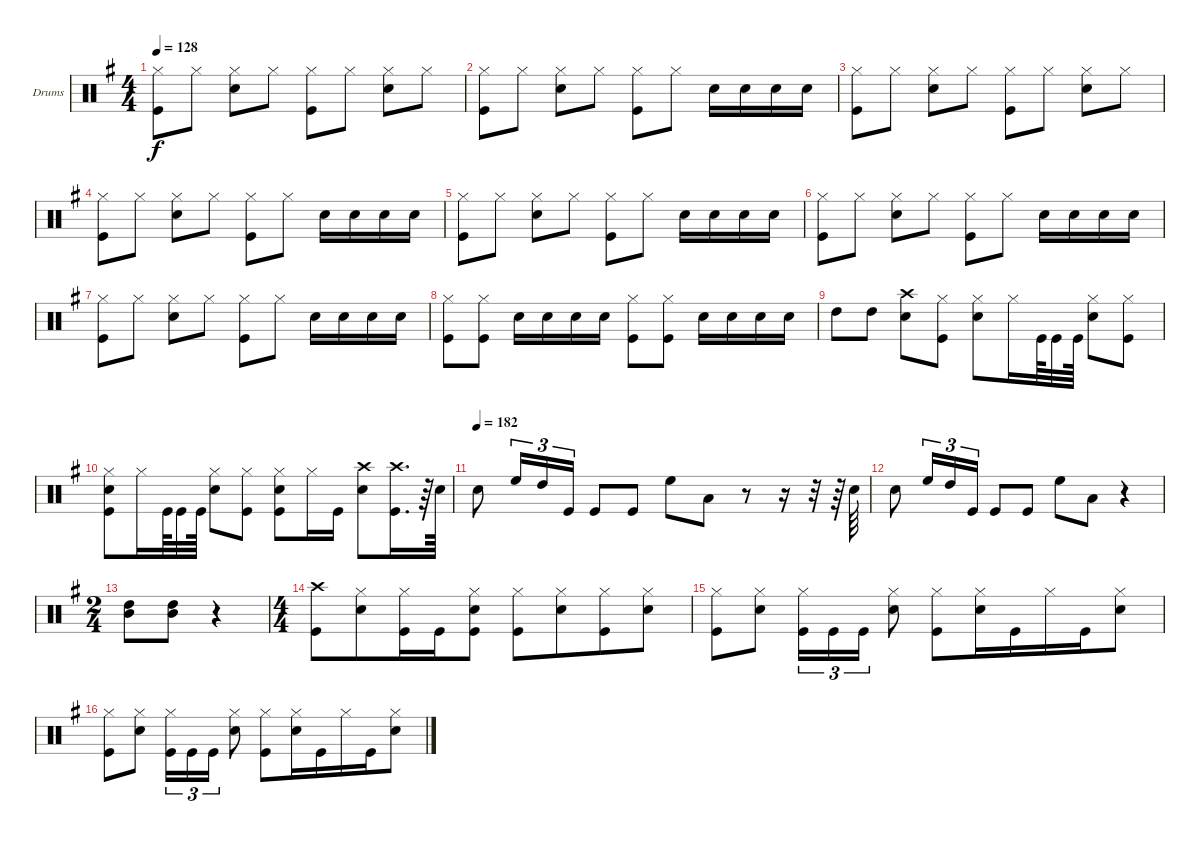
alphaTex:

\bracketExtendMode groupsimilarinstruments
\firstSystemTrackNameOrientation horizontal
\otherSystemsTrackNameOrientation horizontal
\track ("Drumkit" "Drums") {instrument percussion}
\staff {score}
\articulation defaults
\ts (4 4)
\tempo 128
\clef neutral
\scale
1.04288
\ks g
("Hi-Hat (closed)" "Kick (hit)").8{dy f} "Hi-Hat (closed)".8 ("Snare (hit) 2" "Hi-Hat (closed)").8 "Hi-Hat (closed)".8 ("Hi-Hat (closed)" "Kick (hit)").8 "Hi-Hat (closed)".8 ("Snare (hit) 2" "Hi-Hat (closed)").8 "Hi-Hat (closed)".8 |
\scale
0.957125 ("Hi-Hat (closed)" "Kick (hit)").8 "Hi-Hat (closed)".8 ("Snare (hit) 2" "Hi-Hat (closed)").8 "Hi-Hat (closed)".8 ("Hi-Hat (closed)" "Kick (hit)").8 "Hi-Hat (closed)".8 "Snare (hit) 2".16 "Snare (hit) 2".16 "Snare (hit) 2".16 "Snare (hit) 2".16 |
\scale
1.04288 ("Hi-Hat (closed)" "Kick (hit)").8 "Hi-Hat (closed)".8 ("Snare (hit) 2" "Hi-Hat (closed)").8 "Hi-Hat (closed)".8 ("Hi-Hat (closed)" "Kick (hit)").8 "Hi-Hat (closed)".8 ("Snare (hit) 2" "Hi-Hat (closed)").8 "Hi-Hat (closed)".8 |
\scale
0.957125 ("Hi-Hat (closed)" "Kick (hit)").8 "Hi-Hat (closed)".8 ("Snare (hit) 2" "Hi-Hat (closed)").8 "Hi-Hat (closed)".8 ("Hi-Hat (closed)" "Kick (hit)").8 "Hi-Hat (closed)".8 "Snare (hit) 2".16 "Snare (hit) 2".16 "Snare (hit) 2".16 "Snare (hit) 2".16 |
\scale
1.04288 ("Hi-Hat (closed)" "Kick (hit)").8 "Hi-Hat (closed)".8 ("Snare (hit) 2" "Hi-Hat (closed)").8 "Hi-Hat (closed)".8 ("Hi-Hat (closed)" "Kick (hit)").8 "Hi-Hat (closed)".8 "Snare (hit) 2".16 "Snare (hit) 2".16 "Snare (hit) 2".16 "Snare (hit) 2".16 |
\scale
0.957125 ("Hi-Hat (closed)" "Kick (hit)").8 "Hi-Hat (closed)".8 ("Snare (hit) 2" "Hi-Hat (closed)").8 "Hi-Hat (closed)".8 ("Hi-Hat (closed)" "Kick (hit)").8 "Hi-Hat (closed)".8 "Snare (hit) 2".16 "Snare (hit) 2".16 "Snare (hit) 2".16 "Snare (hit) 2".16 |
\scale
1.04288 ("Hi-Hat (closed)" "Kick (hit)").8 "Hi-Hat (closed)".8 ("Snare (hit) 2" "Hi-Hat (closed)").8 "Hi-Hat (closed)".8 ("Hi-Hat (closed)" "Kick (hit)").8 "Hi-Hat (closed)".8 "Snare (hit) 2".16 "Snare (hit) 2".16 "Snare (hit) 2".16 "Snare (hit) 2".16 |
\scale
0.957125 ("Kick (hit)" "Hi-Hat (closed)").8 ("Kick (hit)" "Hi-Hat (closed)").8 "Snare (hit) 2".16 "Snare (hit) 2".16 "Snare (hit) 2".16 "Snare (hit) 2".16 ("Kick (hit)" "Hi-Hat (closed)").8 ("Kick (hit)" "Hi-Hat (closed)").8 "Snare (hit) 2".16 "Snare (hit) 2".16 "Snare (hit) 2".16 "Snare (hit) 2".16 |
\scale
1.04288 "High Tom (hit)".8 "High Tom (hit)".8 ("Crash high (hit)" "Snare (hit) 2").8 ("Kick (hit)" "Hi-Hat (closed)").8 ("Snare (hit) 2" "Hi-Hat (closed)").8 "Hi-Hat (closed)".16 "Kick (hit)".64 "Kick (hit)".32 "Kick (hit)".64 ("Snare (hit) 2" "Hi-Hat (closed)").8 ("Kick (hit)" "Hi-Hat (closed)").8 |
\scale
0.957125 ("Hi-Hat (closed)" "Snare (hit) 2" "Kick (hit)").8 "Hi-Hat (closed)".16 "Kick (hit)".64 "Kick (hit)".32 "Kick (hit)".64 ("Snare (hit) 2" "Hi-Hat (closed)").8 ("Hi-Hat (closed)" "Kick (hit)").8 ("Snare (hit) 2" "Hi-Hat (closed)" "Kick (hit)").8 "Hi-Hat (closed)".16 "Kick (hit)".16 ("Crash high (hit)" "Snare (hit) 2").8 ("Crash high (hit)" "Kick (hit)").16{d} r.64 "Snare (hit) 2".64 |
\tempo 182
\scale
1.04288 "Snare (hit) 2".8 "High Floor Tom (hit)".16{tu (3 2)} "High Tom (hit)".16{tu (3 2)} "Kick (hit)".16{tu (3 2)} "Kick (hit)".8 "Kick (hit)".8 "High Floor Tom (hit)".8 "Low Tom (hit)".8 r.8 r.16 r.32 r.64 "Snare (hit) 2".64 |
\scale
0.957125 "Snare (hit) 2".8 "High Floor Tom (hit)".16{tu (3 2)} "High Tom (hit)".16{tu (3 2)} "Kick (hit)".16{tu (3 2)} "Kick (hit)".8 "Kick (hit)".8 "High Floor Tom (hit)".8 "Low Tom (hit)".8 r.4 |
\ts (2 4)
\beaming (8 4 4 6)
\scale
1.07314 ("High Tom (hit)" "Mid Tom (hit)").8 ("High Tom (hit)" "Mid Tom (hit)").8 r.4 |
\ts (4 4)
\beaming (8 4 4 6)
\scale
0.92686 ("Kick (hit)" "Crash high (hit)").8 ("Hi-Hat (closed)" "Snare (hit) 2").8 ("Kick (hit)" "Hi-Hat (closed)").16 "Kick (hit)".16 ("Kick (hit)" "Snare (hit) 2" "Hi-Hat (closed)").8 ("Kick (hit)" "Hi-Hat (closed)").8 ("Snare (hit) 2" "Hi-Hat (closed)").8 ("Kick (hit)" "Hi-Hat (closed)").8 ("Snare (hit) 2" "Hi-Hat (closed)").8 |
\scale
1.04288 ("Kick (hit)" "Hi-Hat (closed)").8 ("Snare (hit) 2" "Hi-Hat (closed)").8 ("Kick (hit)" "Hi-Hat (closed)").16{tu (3 2)} "Kick (hit)".16{tu (3 2)} "Kick (hit)".16{tu (3 2)} ("Snare (hit) 2" "Hi-Hat (closed)").8 ("Kick (hit)" "Hi-Hat (closed)").8 ("Snare (hit) 2" "Hi-Hat (closed)").16 "Kick (hit)".16 "Hi-Hat (closed)".16 "Kick (hit)".16 ("Snare (hit) 2" "Hi-Hat (closed)").8 |
\scale
0.957125 ("Kick (hit)" "Hi-Hat (closed)").8 ("Snare (hit) 2" "Hi-Hat (closed)").8 ("Kick (hit)" "Hi-Hat (closed)").16{tu (3 2)} "Kick (hit)".16{tu (3 2)} "Kick (hit)".16{tu (3 2)} ("Snare (hit) 2" "Hi-Hat (closed)").8 ("Kick (hit)" "Hi-Hat (closed)").8 ("Snare (hit) 2" "Hi-Hat (closed)").16 "Kick (hit)".16 "Hi-Hat (closed)".16 "Kick (hit)".16 ("Snare (hit) 2" "Hi-Hat (closed)").8
